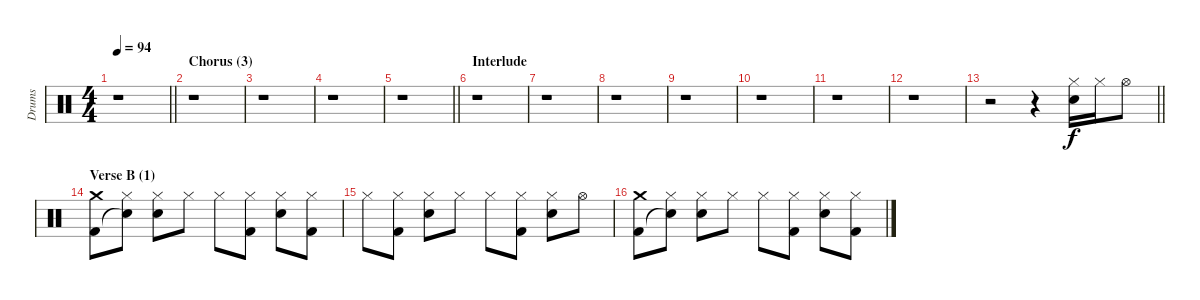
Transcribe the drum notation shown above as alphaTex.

\track ("Drums" "Drums") {instrument percussion}
\staff {score}
\articulation defaults
\ts (4 4)
\tempo 94
\clef neutral
\barLineRight lightlight
\ks aminor
r.1{dy f} |
\section ("" "Chorus (3)")
r.1 |
r.1 |
r.1 |
\barLineRight lightlight
r.1 |
\section ("" "Interlude")
r.1 |
r.1 |
r.1 |
r.1 |
r.1 |
r.1 |
r.1 |
\barLineRight lightlight
r.2 r.4 ("Hi-Hat (closed)" "Electric Snare (hit)").16 "Hi-Hat (closed)".16 "Hi-Hat (open)".8 |
\section ("" "Verse B (1)")
("Crash medium (hit)" "Kick (hit) 2").8 ("Hi-Hat (closed)" "Snare (hit)"{t}).8 ("Hi-Hat (closed)" "Electric Snare (hit)").8 "Hi-Hat (closed)".8 "Hi-Hat (closed)".8 ("Hi-Hat (closed)" "Kick (hit) 2").8 ("Hi-Hat (closed)" "Electric Snare (hit)").8 ("Hi-Hat (closed)" "Kick (hit) 2").8 |
"Hi-Hat (closed)".8 ("Hi-Hat (closed)" "Kick (hit) 2").8 ("Hi-Hat (closed)" "Electric Snare (hit)").8 "Hi-Hat (closed)".8 "Hi-Hat (closed)".8 ("Hi-Hat (closed)" "Kick (hit) 2").8 ("Hi-Hat (closed)" "Electric Snare (hit)").8 "Hi-Hat (open)".8 |
("Crash medium (hit)" "Kick (hit) 2").8 ("Hi-Hat (closed)" "Snare (hit)"{t}).8 ("Hi-Hat (closed)" "Electric Snare (hit)").8 "Hi-Hat (closed)".8 "Hi-Hat (closed)".8 ("Hi-Hat (closed)" "Kick (hit) 2").8 ("Hi-Hat (closed)" "Electric Snare (hit)").8 ("Hi-Hat (closed)" "Kick (hit) 2").8
